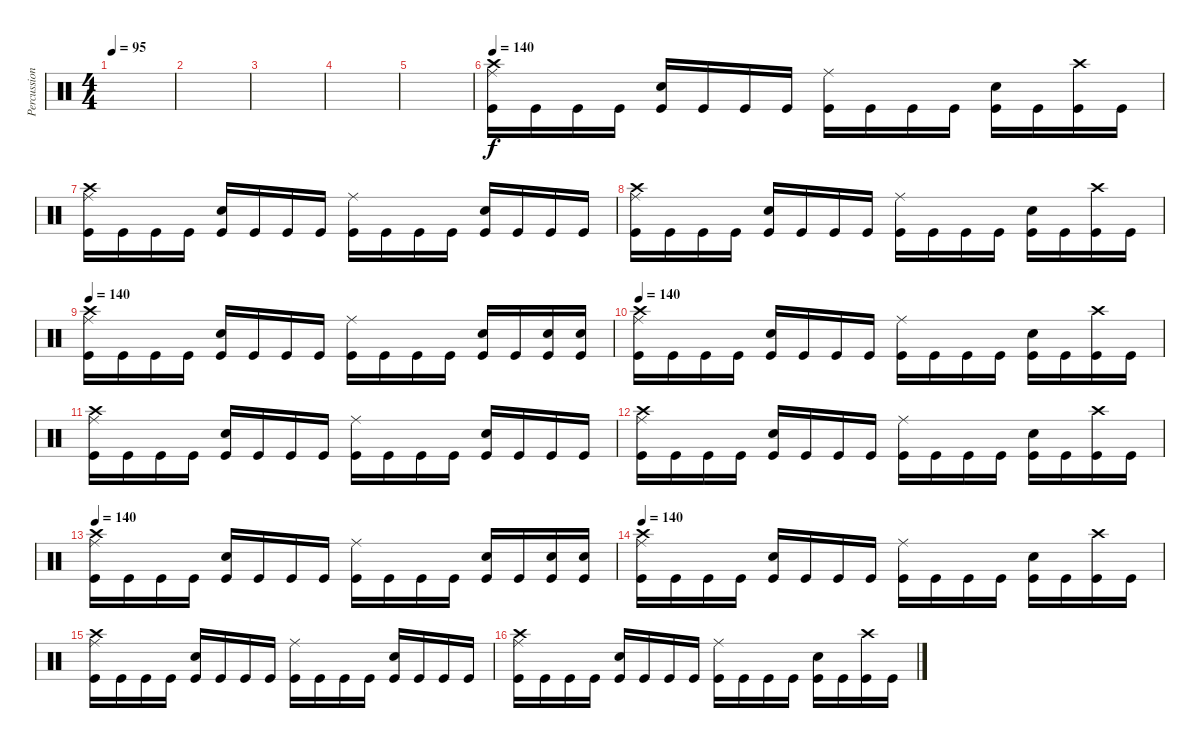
\track ("Percussion" "Percussion") {instrument percussion}
\staff {score}
\articulation defaults
\ts (4 4)
\tempo 95
\clef neutral
\ks c
|
|
|
|
|
\tempo 140
("Ride (middle)" "Crash high (hit)" "Kick (hit)").16 "Kick (hit)".16 "Kick (hit)".16 "Kick (hit)".16 ("Snare (hit) 2" "Kick (hit)").16 "Kick (hit)".16 "Kick (hit)".16 "Kick (hit)".16 ("Ride (middle)" "Kick (hit)").16 "Kick (hit)".16 "Kick (hit)".16 "Kick (hit)".16 ("Snare (hit) 2" "Kick (hit)").16 "Kick (hit)".16 ("Crash high (hit)" "Kick (hit)").16 "Kick (hit)".16 |
("Ride (middle)" "Crash high (hit)" "Kick (hit)").16 "Kick (hit)".16 "Kick (hit)".16 "Kick (hit)".16 ("Snare (hit) 2" "Kick (hit)").16 "Kick (hit)".16 "Kick (hit)".16 "Kick (hit)".16 ("Ride (middle)" "Kick (hit)").16 "Kick (hit)".16 "Kick (hit)".16 "Kick (hit)".16 ("Snare (hit) 2" "Kick (hit)").16 "Kick (hit)".16 "Kick (hit)".16 "Kick (hit)".16 |
("Ride (middle)" "Crash high (hit)" "Kick (hit)").16 "Kick (hit)".16 "Kick (hit)".16 "Kick (hit)".16 ("Snare (hit) 2" "Kick (hit)").16 "Kick (hit)".16 "Kick (hit)".16 "Kick (hit)".16 ("Ride (middle)" "Kick (hit)").16 "Kick (hit)".16 "Kick (hit)".16 "Kick (hit)".16 ("Snare (hit) 2" "Kick (hit)").16 "Kick (hit)".16 ("Crash high (hit)" "Kick (hit)").16 "Kick (hit)".16 |
\tempo 140
("Ride (middle)" "Crash high (hit)" "Kick (hit)").16 "Kick (hit)".16 "Kick (hit)".16 "Kick (hit)".16 ("Snare (hit) 2" "Kick (hit)").16 "Kick (hit)".16 "Kick (hit)".16 "Kick (hit)".16 ("Ride (middle)" "Kick (hit)").16 "Kick (hit)".16 "Kick (hit)".16 "Kick (hit)".16 ("Snare (hit) 2" "Kick (hit)").16 "Kick (hit)".16 ("Snare (hit) 2" "Kick (hit)").16 ("Snare (hit) 2" "Kick (hit)").16 |
\tempo 140
("Ride (middle)" "Crash high (hit)" "Kick (hit)").16 "Kick (hit)".16 "Kick (hit)".16 "Kick (hit)".16 ("Snare (hit) 2" "Kick (hit)").16 "Kick (hit)".16 "Kick (hit)".16 "Kick (hit)".16 ("Ride (middle)" "Kick (hit)").16 "Kick (hit)".16 "Kick (hit)".16 "Kick (hit)".16 ("Snare (hit) 2" "Kick (hit)").16 "Kick (hit)".16 ("Crash high (hit)" "Kick (hit)").16 "Kick (hit)".16 |
("Ride (middle)" "Crash high (hit)" "Kick (hit)").16 "Kick (hit)".16 "Kick (hit)".16 "Kick (hit)".16 ("Snare (hit) 2" "Kick (hit)").16 "Kick (hit)".16 "Kick (hit)".16 "Kick (hit)".16 ("Ride (middle)" "Kick (hit)").16 "Kick (hit)".16 "Kick (hit)".16 "Kick (hit)".16 ("Snare (hit) 2" "Kick (hit)").16 "Kick (hit)".16 "Kick (hit)".16 "Kick (hit)".16 |
("Ride (middle)" "Crash high (hit)" "Kick (hit)").16 "Kick (hit)".16 "Kick (hit)".16 "Kick (hit)".16 ("Snare (hit) 2" "Kick (hit)").16 "Kick (hit)".16 "Kick (hit)".16 "Kick (hit)".16 ("Ride (middle)" "Kick (hit)").16 "Kick (hit)".16 "Kick (hit)".16 "Kick (hit)".16 ("Snare (hit) 2" "Kick (hit)").16 "Kick (hit)".16 ("Crash high (hit)" "Kick (hit)").16 "Kick (hit)".16 |
\tempo 140
("Ride (middle)" "Crash high (hit)" "Kick (hit)").16 "Kick (hit)".16 "Kick (hit)".16 "Kick (hit)".16 ("Snare (hit) 2" "Kick (hit)").16 "Kick (hit)".16 "Kick (hit)".16 "Kick (hit)".16 ("Ride (middle)" "Kick (hit)").16 "Kick (hit)".16 "Kick (hit)".16 "Kick (hit)".16 ("Snare (hit) 2" "Kick (hit)").16 "Kick (hit)".16 ("Snare (hit) 2" "Kick (hit)").16 ("Snare (hit) 2" "Kick (hit)").16 |
\tempo 140
("Ride (middle)" "Crash high (hit)" "Kick (hit)").16 "Kick (hit)".16 "Kick (hit)".16 "Kick (hit)".16 ("Snare (hit) 2" "Kick (hit)").16 "Kick (hit)".16 "Kick (hit)".16 "Kick (hit)".16 ("Ride (middle)" "Kick (hit)").16 "Kick (hit)".16 "Kick (hit)".16 "Kick (hit)".16 ("Snare (hit) 2" "Kick (hit)").16 "Kick (hit)".16 ("Crash high (hit)" "Kick (hit)").16 "Kick (hit)".16 |
("Ride (middle)" "Crash high (hit)" "Kick (hit)").16 "Kick (hit)".16 "Kick (hit)".16 "Kick (hit)".16 ("Snare (hit) 2" "Kick (hit)").16 "Kick (hit)".16 "Kick (hit)".16 "Kick (hit)".16 ("Ride (middle)" "Kick (hit)").16 "Kick (hit)".16 "Kick (hit)".16 "Kick (hit)".16 ("Snare (hit) 2" "Kick (hit)").16 "Kick (hit)".16 "Kick (hit)".16 "Kick (hit)".16 |
("Ride (middle)" "Crash high (hit)" "Kick (hit)").16 "Kick (hit)".16 "Kick (hit)".16 "Kick (hit)".16 ("Snare (hit) 2" "Kick (hit)").16 "Kick (hit)".16 "Kick (hit)".16 "Kick (hit)".16 ("Ride (middle)" "Kick (hit)").16 "Kick (hit)".16 "Kick (hit)".16 "Kick (hit)".16 ("Snare (hit) 2" "Kick (hit)").16 "Kick (hit)".16 ("Crash high (hit)" "Kick (hit)").16 "Kick (hit)".16
